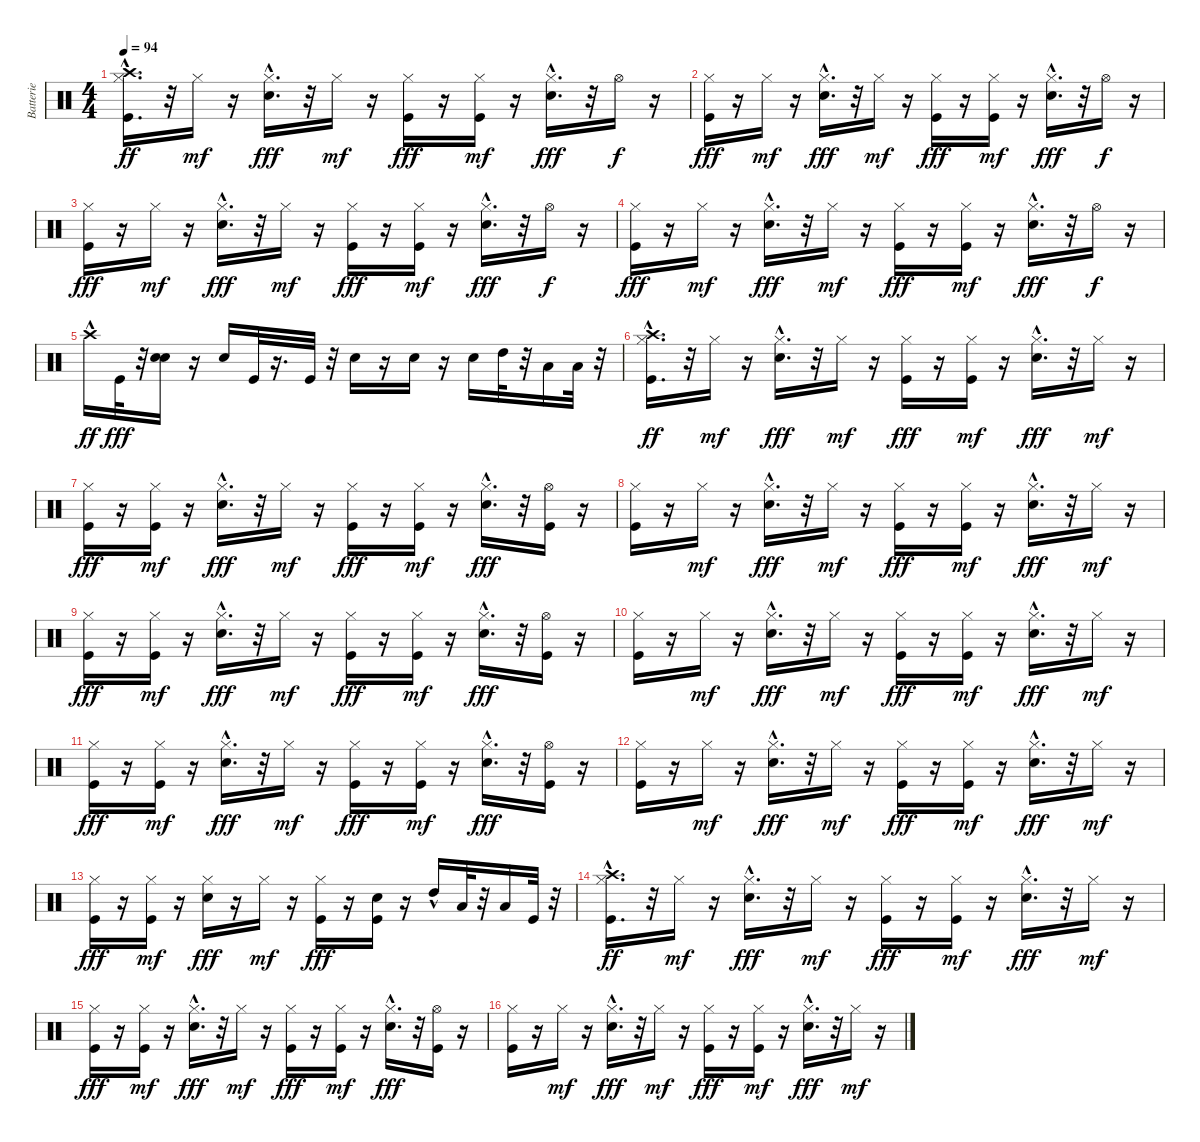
\track ("Batterie" "Batterie") {instrument percussion}
\staff {score}
\articulation defaults
\ts (4 4)
\tempo 94
\clef neutral
\ks c
("Kick (hit)" "Hi-Hat (closed)" "Crash high (hit)"{hac}).16{d dy ff} r.32 "Hi-Hat (closed)".16{dy mf} r.16 ("Snare (hit) 2"{hac} "Hi-Hat (closed)").16{d dy fff} r.32 "Hi-Hat (closed)".16{dy mf} r.16 ("Kick (hit)" "Hi-Hat (closed)").16{dy fff} r.16 ("Kick (hit)" "Hi-Hat (closed)").16{dy mf} r.16 ("Snare (hit) 2"{hac} "Hi-Hat (closed)").16{d dy fff} r.32 "Hi-Hat (open)".16{dy f} r.16 |
("Kick (hit)" "Hi-Hat (closed)").16{dy fff} r.16 "Hi-Hat (closed)".16{dy mf} r.16 ("Snare (hit) 2"{hac} "Hi-Hat (closed)").16{d dy fff} r.32 "Hi-Hat (closed)".16{dy mf} r.16 ("Kick (hit)" "Hi-Hat (closed)").16{dy fff} r.16 ("Kick (hit)" "Hi-Hat (closed)").16{dy mf} r.16 ("Snare (hit) 2"{hac} "Hi-Hat (closed)").16{d dy fff} r.32 "Hi-Hat (open)".16{dy f} r.16 |
("Kick (hit)" "Hi-Hat (closed)").16{dy fff} r.16 "Hi-Hat (closed)".16{dy mf} r.16 ("Snare (hit) 2"{hac} "Hi-Hat (closed)").16{d dy fff} r.32 "Hi-Hat (closed)".16{dy mf} r.16 ("Kick (hit)" "Hi-Hat (closed)").16{dy fff} r.16 ("Kick (hit)" "Hi-Hat (closed)").16{dy mf} r.16 ("Snare (hit) 2"{hac} "Hi-Hat (closed)").16{d dy fff} r.32 "Hi-Hat (open)".16{dy f} r.16 |
("Kick (hit)" "Hi-Hat (closed)").16{dy fff} r.16 "Hi-Hat (closed)".16{dy mf} r.16 ("Snare (hit) 2"{hac} "Hi-Hat (closed)").16{d dy fff} r.32 "Hi-Hat (closed)".16{dy mf} r.16 ("Kick (hit)" "Hi-Hat (closed)").16{dy fff} r.16 ("Kick (hit)" "Hi-Hat (closed)").16{dy mf} r.16 ("Snare (hit) 2"{hac} "Hi-Hat (closed)").16{d dy fff} r.32 "Hi-Hat (open)".16{dy f} r.16 |
"Crash high (hit)"{hac}.16{dy ff} "Kick (hit)".32{dy fff} r.32 ("Snare (hit) 2" "Snare (hit) 2").16 r.16 "Snare (hit) 2".16 "Kick (hit)".32 r.16{d} "Kick (hit)".32 r.32 "Snare (hit) 2".16 r.16 "Snare (hit) 2".16 r.16 "Snare (hit) 2".16 "High Tom (hit)".32 r.32 "Low Tom (hit)".16 "Low Floor Tom (hit)".32 r.32 |
("Kick (hit)" "Hi-Hat (closed)" "Crash high (hit)"{hac}).16{d dy ff} r.32 "Hi-Hat (closed)".16{dy mf} r.16 ("Snare (hit) 2"{hac} "Hi-Hat (closed)").16{d dy fff} r.32 "Hi-Hat (closed)".16{dy mf} r.16 ("Kick (hit)" "Hi-Hat (closed)").16{dy fff} r.16 ("Kick (hit)" "Hi-Hat (closed)").16{dy mf} r.16 ("Snare (hit) 2"{hac} "Hi-Hat (closed)").16{d dy fff} r.32 "Hi-Hat (closed)".16{dy mf} r.16 |
("Kick (hit)" "Hi-Hat (closed)").16{dy fff} r.16 ("Kick (hit)" "Hi-Hat (closed)").16{dy mf} r.16 ("Snare (hit) 2"{hac} "Hi-Hat (closed)").16{d dy fff} r.32 "Hi-Hat (closed)".16{dy mf} r.16 ("Kick (hit)" "Hi-Hat (closed)").16{dy fff} r.16 ("Kick (hit)" "Hi-Hat (closed)").16{dy mf} r.16 ("Snare (hit) 2"{hac} "Hi-Hat (closed)").16{d dy fff} r.32 ("Kick (hit)" "Hi-Hat (open)").16 r.16 |
("Kick (hit)" "Hi-Hat (closed)").16 r.16 "Hi-Hat (closed)".16{dy mf} r.16 ("Snare (hit) 2"{hac} "Hi-Hat (closed)").16{d dy fff} r.32 "Hi-Hat (closed)".16{dy mf} r.16 ("Kick (hit)" "Hi-Hat (closed)").16{dy fff} r.16 ("Kick (hit)" "Hi-Hat (closed)").16{dy mf} r.16 ("Snare (hit) 2"{hac} "Hi-Hat (closed)").16{d dy fff} r.32 "Hi-Hat (closed)".16{dy mf} r.16 |
("Kick (hit)" "Hi-Hat (closed)").16{dy fff} r.16 ("Kick (hit)" "Hi-Hat (closed)").16{dy mf} r.16 ("Snare (hit) 2"{hac} "Hi-Hat (closed)").16{d dy fff} r.32 "Hi-Hat (closed)".16{dy mf} r.16 ("Kick (hit)" "Hi-Hat (closed)").16{dy fff} r.16 ("Kick (hit)" "Hi-Hat (closed)").16{dy mf} r.16 ("Snare (hit) 2"{hac} "Hi-Hat (closed)").16{d dy fff} r.32 ("Kick (hit)" "Hi-Hat (open)").16 r.16 |
("Kick (hit)" "Hi-Hat (closed)").16 r.16 "Hi-Hat (closed)".16{dy mf} r.16 ("Snare (hit) 2"{hac} "Hi-Hat (closed)").16{d dy fff} r.32 "Hi-Hat (closed)".16{dy mf} r.16 ("Kick (hit)" "Hi-Hat (closed)").16{dy fff} r.16 ("Kick (hit)" "Hi-Hat (closed)").16{dy mf} r.16 ("Snare (hit) 2"{hac} "Hi-Hat (closed)").16{d dy fff} r.32 "Hi-Hat (closed)".16{dy mf} r.16 |
("Kick (hit)" "Hi-Hat (closed)").16{dy fff} r.16 ("Kick (hit)" "Hi-Hat (closed)").16{dy mf} r.16 ("Snare (hit) 2"{hac} "Hi-Hat (closed)").16{d dy fff} r.32 "Hi-Hat (closed)".16{dy mf} r.16 ("Kick (hit)" "Hi-Hat (closed)").16{dy fff} r.16 ("Kick (hit)" "Hi-Hat (closed)").16{dy mf} r.16 ("Snare (hit) 2"{hac} "Hi-Hat (closed)").16{d dy fff} r.32 ("Kick (hit)" "Hi-Hat (open)").16 r.16 |
("Kick (hit)" "Hi-Hat (closed)").16 r.16 "Hi-Hat (closed)".16{dy mf} r.16 ("Snare (hit) 2"{hac} "Hi-Hat (closed)").16{d dy fff} r.32 "Hi-Hat (closed)".16{dy mf} r.16 ("Kick (hit)" "Hi-Hat (closed)").16{dy fff} r.16 ("Kick (hit)" "Hi-Hat (closed)").16{dy mf} r.16 ("Snare (hit) 2"{hac} "Hi-Hat (closed)").16{d dy fff} r.32 "Hi-Hat (closed)".16{dy mf} r.16 |
("Kick (hit)" "Hi-Hat (closed)").16{dy fff} r.16 ("Kick (hit)" "Hi-Hat (closed)").16{dy mf} r.16 ("Snare (hit) 2" "Hi-Hat (closed)").16{dy fff} r.16 "Hi-Hat (closed)".16{dy mf} r.16 ("Kick (hit)" "Hi-Hat (closed)").16{dy fff} r.16 ("Kick (hit)" "Snare (hit) 2").16 r.16 "High Tom (hit)"{hac}.16 "Low Tom (hit)".32 r.32 "Low Floor Tom (hit)".16 "Kick (hit)".32 r.32 |
("Kick (hit)" "Hi-Hat (closed)" "Crash high (hit)"{hac}).16{d dy ff} r.32 "Hi-Hat (closed)".16{dy mf} r.16 ("Snare (hit) 2"{hac} "Hi-Hat (closed)").16{d dy fff} r.32 "Hi-Hat (closed)".16{dy mf} r.16 ("Kick (hit)" "Hi-Hat (closed)").16{dy fff} r.16 ("Kick (hit)" "Hi-Hat (closed)").16{dy mf} r.16 ("Snare (hit) 2"{hac} "Hi-Hat (closed)").16{d dy fff} r.32 "Hi-Hat (closed)".16{dy mf} r.16 |
("Kick (hit)" "Hi-Hat (closed)").16{dy fff} r.16 ("Kick (hit)" "Hi-Hat (closed)").16{dy mf} r.16 ("Snare (hit) 2"{hac} "Hi-Hat (closed)").16{d dy fff} r.32 "Hi-Hat (closed)".16{dy mf} r.16 ("Kick (hit)" "Hi-Hat (closed)").16{dy fff} r.16 ("Kick (hit)" "Hi-Hat (closed)").16{dy mf} r.16 ("Snare (hit) 2"{hac} "Hi-Hat (closed)").16{d dy fff} r.32 ("Kick (hit)" "Hi-Hat (open)").16 r.16 |
("Kick (hit)" "Hi-Hat (closed)").16 r.16 "Hi-Hat (closed)".16{dy mf} r.16 ("Snare (hit) 2"{hac} "Hi-Hat (closed)").16{d dy fff} r.32 "Hi-Hat (closed)".16{dy mf} r.16 ("Kick (hit)" "Hi-Hat (closed)").16{dy fff} r.16 ("Kick (hit)" "Hi-Hat (closed)").16{dy mf} r.16 ("Snare (hit) 2"{hac} "Hi-Hat (closed)").16{d dy fff} r.32 "Hi-Hat (closed)".16{dy mf} r.16
